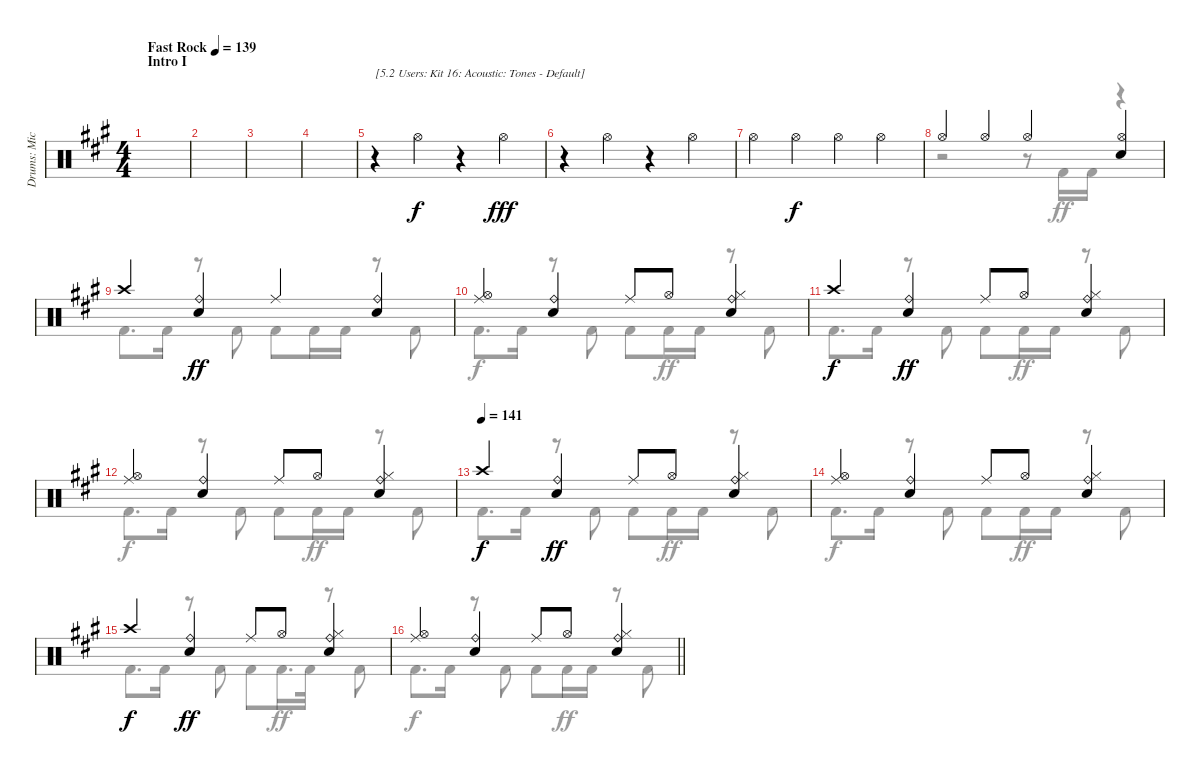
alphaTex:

\track ("Drums: Mick" "Drums: Mic") {instrument percussion}
\staff {score}
\articulation defaults
\voice
\ts (4 4)
\section ("" "Intro I")
\tempo (139 "Fast Rock")
\clef neutral
\ks a
|
|
|
|
r.4{txt "[5.2 Users: Kit 16: Acoustic: Tones - Default]"} "Hi-Hat (open)".4 r.4 "Hi-Hat (open)".4{dy fff} |
r.4 "Hi-Hat (open)".4 r.4 "Hi-Hat (open)".4 |
"Hi-Hat (open)".4 "Hi-Hat (open)".4{dy f} "Hi-Hat (open)".4 "Hi-Hat (open)".4 |
"Hi-Hat (open)".4 "Hi-Hat (open)".4 "Hi-Hat (open)".4 ("Hi-Hat (open)" "Snare (hit) 2").4 |
"Crash high (hit)".4 ("Ride (bell)" "Snare (hit) 2").4{dy ff} "Ride (middle)".4 ("Ride (bell)" "Snare (hit) 2").4 |
("Ride (middle)" "Hi-Hat (open)").4 ("Ride (bell)" "Snare (hit) 2").4 "Ride (middle)".8 "Hi-Hat (open)".8 ("Ride (bell)" "Hi-Hat (closed)" "Snare (hit) 2").4 |
"Crash high (hit)".4{dy f} ("Ride (bell)" "Snare (hit) 2").4{dy ff} "Ride (middle)".8 "Hi-Hat (open)".8 ("Ride (bell)" "Hi-Hat (closed)" "Snare (hit) 2").4 |
("Ride (middle)" "Hi-Hat (open)").4 ("Ride (bell)" "Snare (hit) 2").4 "Ride (middle)".8 "Hi-Hat (open)".8 ("Ride (bell)" "Hi-Hat (closed)" "Snare (hit) 2").4 |
\tempo (141)
"Crash high (hit)".4{dy f} ("Ride (bell)" "Snare (hit) 2").4{dy ff} "Ride (middle)".8 "Hi-Hat (open)".8 ("Ride (bell)" "Hi-Hat (closed)" "Snare (hit) 2").4 |
("Ride (middle)" "Hi-Hat (open)").4 ("Ride (bell)" "Snare (hit) 2").4 "Ride (middle)".8 "Hi-Hat (open)".8 ("Ride (bell)" "Hi-Hat (closed)" "Snare (hit) 2").4 |
"Crash high (hit)".4{dy f} ("Ride (bell)" "Snare (hit) 2").4{dy ff} "Ride (middle)".8 "Hi-Hat (open)".8 ("Ride (bell)" "Hi-Hat (closed)" "Snare (hit) 2").4 |
\barLineRight lightlight
("Ride (middle)" "Hi-Hat (open)").4 ("Ride (bell)" "Snare (hit) 2").4 "Ride (middle)".8 "Hi-Hat (open)".8 ("Ride (bell)" "Hi-Hat (closed)" "Snare (hit) 2").4
\voice
\clef neutral
\ottava regular
\simile none
\ks a
|
|
|
|
|
|
|
r.2 r.8 "Kick (hit) 2".16 "Kick (hit) 2".16 r.4 |
"Kick (hit) 2".8{d} "Kick (hit) 2".16 r.8 "Kick (hit) 2".8 "Kick (hit) 2".8 "Kick (hit) 2".16{dy ff} "Kick (hit) 2".16 r.8 "Kick (hit) 2".8 |
"Kick (hit) 2".8{d dy f} "Kick (hit) 2".16 r.8 "Kick (hit) 2".8 "Kick (hit) 2".8 "Kick (hit) 2".16{dy ff} "Kick (hit) 2".16 r.8 "Kick (hit) 2".8 |
"Kick (hit) 2".8{d dy f} "Kick (hit) 2".16 r.8 "Kick (hit) 2".8 "Kick (hit) 2".8 "Kick (hit) 2".16{dy ff} "Kick (hit) 2".16 r.8 "Kick (hit) 2".8 |
"Kick (hit) 2".8{d dy f} "Kick (hit) 2".16 r.8 "Kick (hit) 2".8 "Kick (hit) 2".8 "Kick (hit) 2".16{dy ff} "Kick (hit) 2".16 r.8 "Kick (hit) 2".8 |
"Kick (hit) 2".8{d dy f} "Kick (hit) 2".16 r.8 "Kick (hit) 2".8 "Kick (hit) 2".8 "Kick (hit) 2".16{dy ff} "Kick (hit) 2".16 r.8 "Kick (hit) 2".8 |
"Kick (hit) 2".8{d dy f} "Kick (hit) 2".16 r.8 "Kick (hit) 2".8 "Kick (hit) 2".8 "Kick (hit) 2".16{dy ff} "Kick (hit) 2".16 r.8 "Kick (hit) 2".8 |
"Kick (hit) 2".8{d dy f} "Kick (hit) 2".16 r.8 "Kick (hit) 2".8 "Kick (hit) 2".8 "Kick (hit) 2".16{d dy ff} "Kick (hit) 2".32 r.8 "Kick (hit) 2".8 |
\barLineRight lightlight "Kick (hit) 2".8{d dy f} "Kick (hit) 2".16
r.8 "Kick (hit) 2".8 "Kick (hit) 2".8 "Kick (hit) 2".16{dy ff} "Kick (hit) 2".16 r.8 "Kick (hit) 2".8
